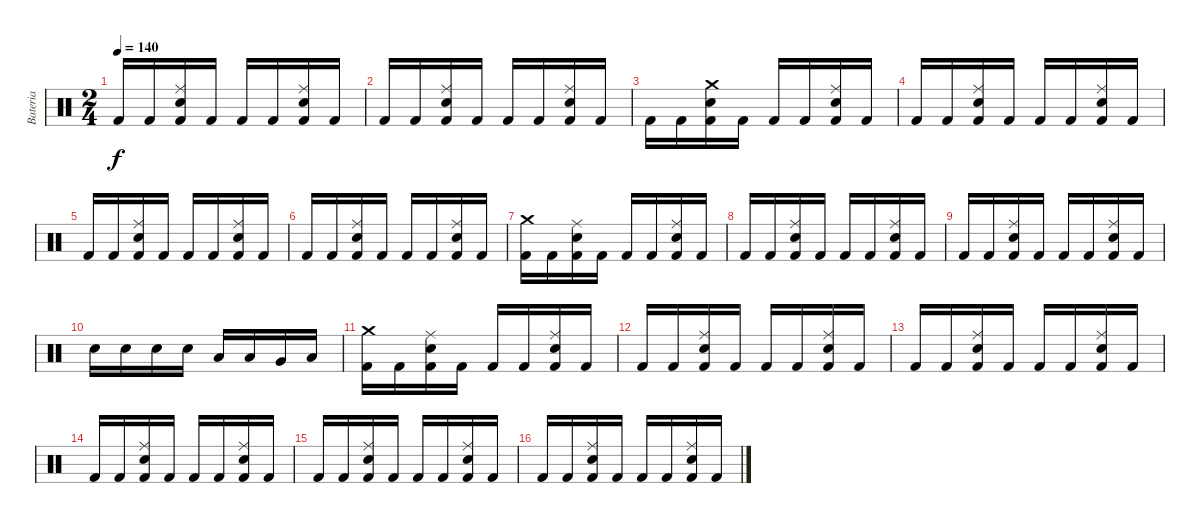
\track ("Bateria" "Bateria") {instrument percussion}
\staff {score}
\articulation defaults
\ts (2 4)
\tempo 140
\clef neutral
\ks c "Kick (hit) 2".16{dy f} "Kick (hit) 2".16
("Ride (middle)" "Snare (hit) 2" "Kick (hit) 2").16 "Kick (hit) 2".16 "Kick (hit) 2".16 "Kick (hit) 2".16 ("Ride (middle)" "Snare (hit) 2" "Kick (hit) 2").16 "Kick (hit) 2".16 |
"Kick (hit) 2".16 "Kick (hit) 2".16 ("Ride (middle)" "Snare (hit) 2" "Kick (hit) 2").16 "Kick (hit) 2".16 "Kick (hit) 2".16 "Kick (hit) 2".16 ("Ride (middle)" "Snare (hit) 2" "Kick (hit) 2").16 "Kick (hit) 2".16 |
"Kick (hit) 2".16 "Kick (hit) 2".16 ("Crash medium (hit)" "Snare (hit) 2" "Kick (hit) 2").16 "Kick (hit) 2".16 "Kick (hit) 2".16 "Kick (hit) 2".16 ("Ride (middle)" "Snare (hit) 2" "Kick (hit) 2").16 "Kick (hit) 2".16 |
"Kick (hit) 2".16 "Kick (hit) 2".16 ("Ride (middle)" "Snare (hit) 2" "Kick (hit) 2").16 "Kick (hit) 2".16 "Kick (hit) 2".16 "Kick (hit) 2".16 ("Ride (middle)" "Snare (hit) 2" "Kick (hit) 2").16 "Kick (hit) 2".16 |
"Kick (hit) 2".16 "Kick (hit) 2".16 ("Ride (middle)" "Snare (hit) 2" "Kick (hit) 2").16 "Kick (hit) 2".16 "Kick (hit) 2".16 "Kick (hit) 2".16 ("Ride (middle)" "Snare (hit) 2" "Kick (hit) 2").16 "Kick (hit) 2".16 |
"Kick (hit) 2".16 "Kick (hit) 2".16 ("Ride (middle)" "Snare (hit) 2" "Kick (hit) 2").16 "Kick (hit) 2".16 "Kick (hit) 2".16 "Kick (hit) 2".16 ("Ride (middle)" "Snare (hit) 2" "Kick (hit) 2").16 "Kick (hit) 2".16 |
("Crash medium (hit)" "Kick (hit) 2").16 "Kick (hit) 2".16 ("Ride (middle)" "Snare (hit) 2" "Kick (hit) 2").16 "Kick (hit) 2".16 "Kick (hit) 2".16 "Kick (hit) 2".16 ("Ride (middle)" "Snare (hit) 2" "Kick (hit) 2").16 "Kick (hit) 2".16 |
"Kick (hit) 2".16 "Kick (hit) 2".16 ("Ride (middle)" "Snare (hit) 2" "Kick (hit) 2").16 "Kick (hit) 2".16 "Kick (hit) 2".16 "Kick (hit) 2".16 ("Ride (middle)" "Snare (hit) 2" "Kick (hit) 2").16 "Kick (hit) 2".16 |
"Kick (hit) 2".16 "Kick (hit) 2".16 ("Ride (middle)" "Snare (hit) 2" "Kick (hit) 2").16 "Kick (hit) 2".16 "Kick (hit) 2".16 "Kick (hit) 2".16 ("Ride (middle)" "Snare (hit) 2" "Kick (hit) 2").16 "Kick (hit) 2".16 |
"Snare (hit) 2".16 "Snare (hit) 2".16 "Snare (hit) 2".16 "Snare (hit) 2".16 "Low Tom (hit)".16 "Low Tom (hit)".16 "Very Low Tom (hit)".16 "Low Floor Tom (hit)".16 |
("Crash medium (hit)" "Kick (hit) 2").16 "Kick (hit) 2".16 ("Ride (middle)" "Snare (hit) 2" "Kick (hit) 2").16 "Kick (hit) 2".16 "Kick (hit) 2".16 "Kick (hit) 2".16 ("Ride (middle)" "Snare (hit) 2" "Kick (hit) 2").16 "Kick (hit) 2".16 |
"Kick (hit) 2".16 "Kick (hit) 2".16 ("Ride (middle)" "Snare (hit) 2" "Kick (hit) 2").16 "Kick (hit) 2".16 "Kick (hit) 2".16 "Kick (hit) 2".16 ("Ride (middle)" "Snare (hit) 2" "Kick (hit) 2").16 "Kick (hit) 2".16 |
"Kick (hit) 2".16 "Kick (hit) 2".16 ("Ride (middle)" "Snare (hit) 2" "Kick (hit) 2").16 "Kick (hit) 2".16 "Kick (hit) 2".16 "Kick (hit) 2".16 ("Ride (middle)" "Snare (hit) 2" "Kick (hit) 2").16 "Kick (hit) 2".16 |
"Kick (hit) 2".16 "Kick (hit) 2".16 ("Ride (middle)" "Snare (hit) 2" "Kick (hit) 2").16 "Kick (hit) 2".16 "Kick (hit) 2".16 "Kick (hit) 2".16 ("Ride (middle)" "Snare (hit) 2" "Kick (hit) 2").16 "Kick (hit) 2".16 |
"Kick (hit) 2".16 "Kick (hit) 2".16 ("Ride (middle)" "Snare (hit) 2" "Kick (hit) 2").16 "Kick (hit) 2".16 "Kick (hit) 2".16 "Kick (hit) 2".16 ("Ride (middle)" "Snare (hit) 2" "Kick (hit) 2").16 "Kick (hit) 2".16 |
"Kick (hit) 2".16 "Kick (hit) 2".16 ("Ride (middle)" "Snare (hit) 2" "Kick (hit) 2").16 "Kick (hit) 2".16 "Kick (hit) 2".16 "Kick (hit) 2".16 ("Ride (middle)" "Snare (hit) 2" "Kick (hit) 2").16 "Kick (hit) 2".16
